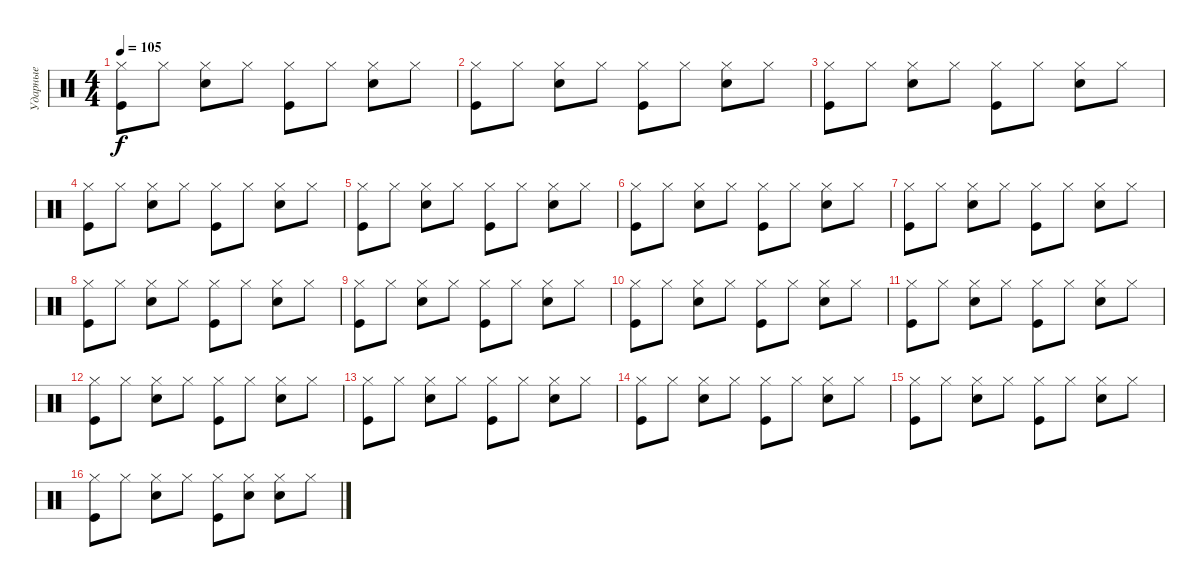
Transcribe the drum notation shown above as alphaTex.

\track ("Ударные" "Ударные") {instrument percussion}
\staff {score}
\articulation defaults
\ts (4 4)
\tempo 105
\clef neutral
\ks c
("Kick (hit)" "Hi-Hat (closed)").8{dy f} "Hi-Hat (closed)".8 ("Snare (hit) 2" "Hi-Hat (closed)").8 "Hi-Hat (closed)".8 ("Kick (hit)" "Hi-Hat (closed)").8 "Hi-Hat (closed)".8 ("Snare (hit) 2" "Hi-Hat (closed)").8 "Hi-Hat (closed)".8 |
("Kick (hit)" "Hi-Hat (closed)").8 "Hi-Hat (closed)".8 ("Snare (hit) 2" "Hi-Hat (closed)").8 "Hi-Hat (closed)".8 ("Kick (hit)" "Hi-Hat (closed)").8 "Hi-Hat (closed)".8 ("Snare (hit) 2" "Hi-Hat (closed)").8 "Hi-Hat (closed)".8 |
("Kick (hit)" "Hi-Hat (closed)").8 "Hi-Hat (closed)".8 ("Snare (hit) 2" "Hi-Hat (closed)").8 "Hi-Hat (closed)".8 ("Kick (hit)" "Hi-Hat (closed)").8 "Hi-Hat (closed)".8 ("Snare (hit) 2" "Hi-Hat (closed)").8 "Hi-Hat (closed)".8 |
("Kick (hit)" "Hi-Hat (closed)").8 "Hi-Hat (closed)".8 ("Snare (hit) 2" "Hi-Hat (closed)").8 "Hi-Hat (closed)".8 ("Kick (hit)" "Hi-Hat (closed)").8 "Hi-Hat (closed)".8 ("Snare (hit) 2" "Hi-Hat (closed)").8 "Hi-Hat (closed)".8 |
("Kick (hit)" "Hi-Hat (closed)").8 "Hi-Hat (closed)".8 ("Snare (hit) 2" "Hi-Hat (closed)").8 "Hi-Hat (closed)".8 ("Kick (hit)" "Hi-Hat (closed)").8 "Hi-Hat (closed)".8 ("Snare (hit) 2" "Hi-Hat (closed)").8 "Hi-Hat (closed)".8 |
("Kick (hit)" "Hi-Hat (closed)").8 "Hi-Hat (closed)".8 ("Snare (hit) 2" "Hi-Hat (closed)").8 "Hi-Hat (closed)".8 ("Kick (hit)" "Hi-Hat (closed)").8 "Hi-Hat (closed)".8 ("Snare (hit) 2" "Hi-Hat (closed)").8 "Hi-Hat (closed)".8 |
("Kick (hit)" "Hi-Hat (closed)").8 "Hi-Hat (closed)".8 ("Snare (hit) 2" "Hi-Hat (closed)").8 "Hi-Hat (closed)".8 ("Kick (hit)" "Hi-Hat (closed)").8 "Hi-Hat (closed)".8 ("Snare (hit) 2" "Hi-Hat (closed)").8 "Hi-Hat (closed)".8 |
("Kick (hit)" "Hi-Hat (closed)").8 "Hi-Hat (closed)".8 ("Snare (hit) 2" "Hi-Hat (closed)").8 "Hi-Hat (closed)".8 ("Kick (hit)" "Hi-Hat (closed)").8 "Hi-Hat (closed)".8 ("Snare (hit) 2" "Hi-Hat (closed)").8 "Hi-Hat (closed)".8 |
("Kick (hit)" "Hi-Hat (closed)").8 "Hi-Hat (closed)".8 ("Snare (hit) 2" "Hi-Hat (closed)").8 "Hi-Hat (closed)".8 ("Kick (hit)" "Hi-Hat (closed)").8 "Hi-Hat (closed)".8 ("Snare (hit) 2" "Hi-Hat (closed)").8 "Hi-Hat (closed)".8 |
("Kick (hit)" "Hi-Hat (closed)").8 "Hi-Hat (closed)".8 ("Snare (hit) 2" "Hi-Hat (closed)").8 "Hi-Hat (closed)".8 ("Kick (hit)" "Hi-Hat (closed)").8 "Hi-Hat (closed)".8 ("Snare (hit) 2" "Hi-Hat (closed)").8 "Hi-Hat (closed)".8 |
("Kick (hit)" "Hi-Hat (closed)").8 "Hi-Hat (closed)".8 ("Snare (hit) 2" "Hi-Hat (closed)").8 "Hi-Hat (closed)".8 ("Kick (hit)" "Hi-Hat (closed)").8 "Hi-Hat (closed)".8 ("Snare (hit) 2" "Hi-Hat (closed)").8 "Hi-Hat (closed)".8 |
("Kick (hit)" "Hi-Hat (closed)").8 "Hi-Hat (closed)".8 ("Snare (hit) 2" "Hi-Hat (closed)").8 "Hi-Hat (closed)".8 ("Kick (hit)" "Hi-Hat (closed)").8 "Hi-Hat (closed)".8 ("Snare (hit) 2" "Hi-Hat (closed)").8 "Hi-Hat (closed)".8 |
("Kick (hit)" "Hi-Hat (closed)").8 "Hi-Hat (closed)".8 ("Snare (hit) 2" "Hi-Hat (closed)").8 "Hi-Hat (closed)".8 ("Kick (hit)" "Hi-Hat (closed)").8 "Hi-Hat (closed)".8 ("Snare (hit) 2" "Hi-Hat (closed)").8 "Hi-Hat (closed)".8 |
("Kick (hit)" "Hi-Hat (closed)").8 "Hi-Hat (closed)".8 ("Snare (hit) 2" "Hi-Hat (closed)").8 "Hi-Hat (closed)".8 ("Kick (hit)" "Hi-Hat (closed)").8 "Hi-Hat (closed)".8 ("Snare (hit) 2" "Hi-Hat (closed)").8 "Hi-Hat (closed)".8 |
("Kick (hit)" "Hi-Hat (closed)").8 "Hi-Hat (closed)".8 ("Snare (hit) 2" "Hi-Hat (closed)").8 "Hi-Hat (closed)".8 ("Kick (hit)" "Hi-Hat (closed)").8 "Hi-Hat (closed)".8 ("Snare (hit) 2" "Hi-Hat (closed)").8 "Hi-Hat (closed)".8 |
("Kick (hit)" "Hi-Hat (closed)").8 "Hi-Hat (closed)".8 ("Snare (hit) 2" "Hi-Hat (closed)").8 "Hi-Hat (closed)".8 ("Kick (hit)" "Hi-Hat (closed)").8 ("Hi-Hat (closed)" "Snare (hit) 2").8 ("Snare (hit) 2" "Hi-Hat (closed)").8 "Hi-Hat (closed)".8
